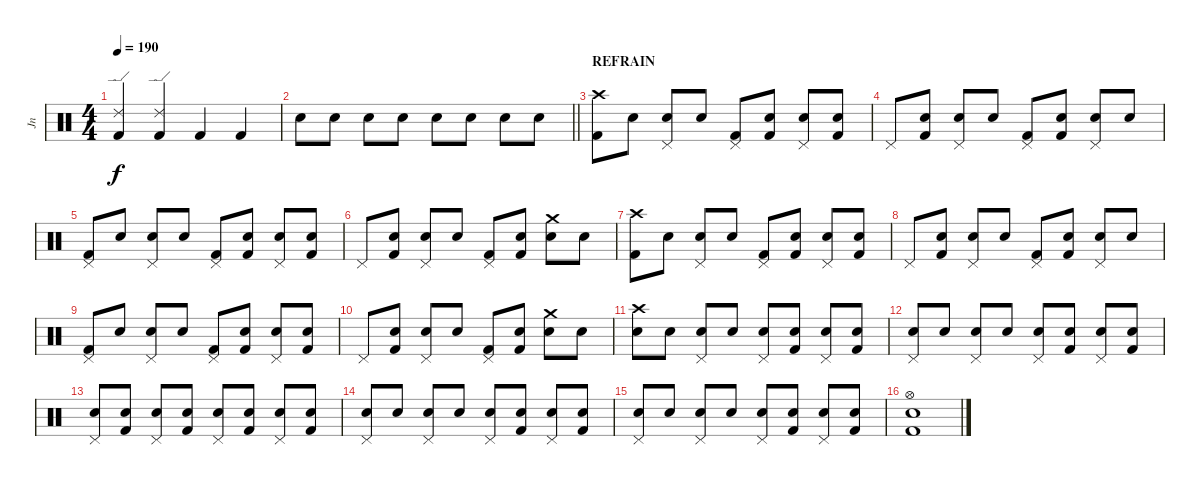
\track ("Jn" "Jn") {instrument percussion}
\staff {score}
\articulation defaults
\ts (4 4)
\tempo 190
\clef neutral
\ks c
("Ride (edge) 2" "Kick (hit) 2").4{dy f} ("Ride (edge) 2" "Kick (hit) 2").4 "Kick (hit) 2".4 "Kick (hit) 2".4 |
\barLineRight lightlight "Electric Snare (hit)".8 "Electric Snare (hit)".8 "Electric Snare (hit)".8 "Electric Snare (hit)".8 "Electric Snare (hit)".8 "Electric Snare (hit)".8 "Electric Snare (hit)".8 "Electric Snare (hit)".8
|
\section ("" "REFRAIN")
("Crash high (hit)" "Kick (hit) 2").8 "Snare (hit)".8 ("Pedal Hi-Hat (hit)" "Electric Snare (hit)").8 "Snare (hit)".8 ("Pedal Hi-Hat (hit)" "Kick (hit) 2").8 ("Snare (hit)" "Kick (hit) 2").8 ("Pedal Hi-Hat (hit)" "Electric Snare (hit)").8 ("Snare (hit)" "Kick (hit) 2").8 |
"Pedal Hi-Hat (hit)".8 ("Snare (hit)" "Kick (hit) 2").8 ("Pedal Hi-Hat (hit)" "Electric Snare (hit)").8 "Snare (hit)".8 ("Pedal Hi-Hat (hit)" "Kick (hit) 2").8 ("Snare (hit)" "Kick (hit) 2").8 ("Pedal Hi-Hat (hit)" "Electric Snare (hit)").8 "Snare (hit)".8 |
("Pedal Hi-Hat (hit)" "Kick (hit) 2").8 "Snare (hit)".8 ("Pedal Hi-Hat (hit)" "Electric Snare (hit)").8 "Snare (hit)".8 ("Pedal Hi-Hat (hit)" "Kick (hit) 2").8 ("Snare (hit)" "Kick (hit) 2").8 ("Pedal Hi-Hat (hit)" "Electric Snare (hit)").8 ("Snare (hit)" "Kick (hit) 2").8 |
"Pedal Hi-Hat (hit)".8 ("Snare (hit)" "Kick (hit) 2").8 ("Pedal Hi-Hat (hit)" "Electric Snare (hit)").8 "Snare (hit)".8 ("Pedal Hi-Hat (hit)" "Kick (hit) 2").8 ("Snare (hit)" "Kick (hit) 2").8 ("Crash medium (hit)" "Electric Snare (hit)").8 "Snare (hit)".8 |
("Crash high (hit)" "Kick (hit) 2").8 "Snare (hit)".8 ("Pedal Hi-Hat (hit)" "Electric Snare (hit)").8 "Snare (hit)".8 ("Pedal Hi-Hat (hit)" "Kick (hit) 2").8 ("Snare (hit)" "Kick (hit) 2").8 ("Pedal Hi-Hat (hit)" "Electric Snare (hit)").8 ("Snare (hit)" "Kick (hit) 2").8 |
"Pedal Hi-Hat (hit)".8 ("Snare (hit)" "Kick (hit) 2").8 ("Pedal Hi-Hat (hit)" "Electric Snare (hit)").8 "Snare (hit)".8 ("Pedal Hi-Hat (hit)" "Kick (hit) 2").8 ("Snare (hit)" "Kick (hit) 2").8 ("Pedal Hi-Hat (hit)" "Electric Snare (hit)").8 "Snare (hit)".8 |
("Pedal Hi-Hat (hit)" "Kick (hit) 2").8 "Snare (hit)".8 ("Pedal Hi-Hat (hit)" "Electric Snare (hit)").8 "Snare (hit)".8 ("Pedal Hi-Hat (hit)" "Kick (hit) 2").8 ("Snare (hit)" "Kick (hit) 2").8 ("Pedal Hi-Hat (hit)" "Electric Snare (hit)").8 ("Snare (hit)" "Kick (hit) 2").8 |
"Pedal Hi-Hat (hit)".8 ("Snare (hit)" "Kick (hit) 2").8 ("Pedal Hi-Hat (hit)" "Electric Snare (hit)").8 "Snare (hit)".8 ("Pedal Hi-Hat (hit)" "Kick (hit) 2").8 ("Snare (hit)" "Kick (hit) 2").8 ("Crash medium (hit)" "Electric Snare (hit)").8 "Snare (hit)".8 |
("Crash high (hit)" "Electric Snare (hit)").8 "Snare (hit)".8 ("Pedal Hi-Hat (hit)" "Electric Snare (hit)").8 "Snare (hit)".8 ("Pedal Hi-Hat (hit)" "Electric Snare (hit)").8 ("Snare (hit)" "Kick (hit) 2").8 ("Pedal Hi-Hat (hit)" "Electric Snare (hit)").8 ("Snare (hit)" "Kick (hit) 2").8 |
("Pedal Hi-Hat (hit)" "Electric Snare (hit)").8 "Snare (hit)".8 ("Pedal Hi-Hat (hit)" "Electric Snare (hit)").8 "Snare (hit)".8 ("Pedal Hi-Hat (hit)" "Electric Snare (hit)").8 ("Snare (hit)" "Kick (hit) 2").8 ("Pedal Hi-Hat (hit)" "Electric Snare (hit)").8 ("Snare (hit)" "Kick (hit) 2").8 |
("Pedal Hi-Hat (hit)" "Electric Snare (hit)").8 ("Snare (hit)" "Kick (hit) 2").8 ("Pedal Hi-Hat (hit)" "Electric Snare (hit)").8 ("Snare (hit)" "Kick (hit) 2").8 ("Pedal Hi-Hat (hit)" "Electric Snare (hit)").8 ("Snare (hit)" "Kick (hit) 2").8 ("Pedal Hi-Hat (hit)" "Electric Snare (hit)").8 ("Snare (hit)" "Kick (hit) 2").8 |
("Pedal Hi-Hat (hit)" "Electric Snare (hit)").8 "Snare (hit)".8 ("Pedal Hi-Hat (hit)" "Electric Snare (hit)").8 "Snare (hit)".8 ("Pedal Hi-Hat (hit)" "Electric Snare (hit)").8 ("Snare (hit)" "Kick (hit) 2").8 ("Pedal Hi-Hat (hit)" "Electric Snare (hit)").8 ("Snare (hit)" "Kick (hit) 2").8 |
("Pedal Hi-Hat (hit)" "Electric Snare (hit)").8 "Snare (hit)".8 ("Pedal Hi-Hat (hit)" "Electric Snare (hit)").8 "Snare (hit)".8 ("Pedal Hi-Hat (hit)" "Electric Snare (hit)").8 ("Snare (hit)" "Kick (hit) 2").8 ("Pedal Hi-Hat (hit)" "Electric Snare (hit)").8 ("Snare (hit)" "Kick (hit) 2").8 |
("Kick (hit) 2" "Electric Snare (hit)" "Hi-Hat (open)").1
